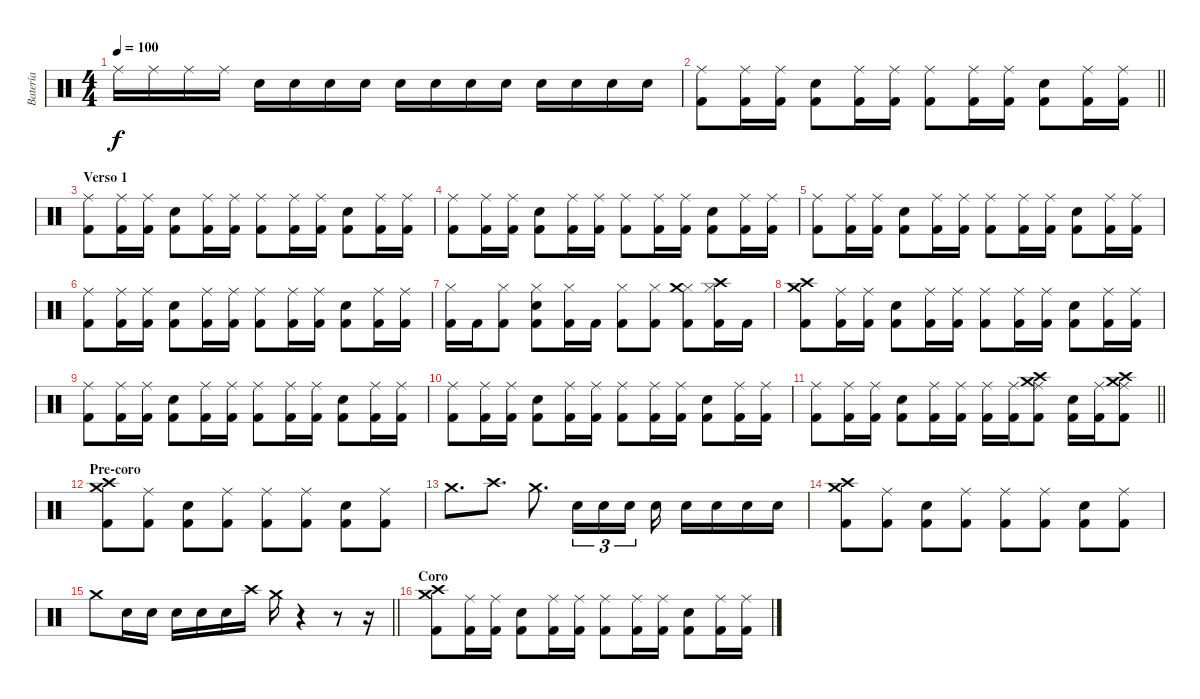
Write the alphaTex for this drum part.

\track ("Batería" "Batería") {instrument percussion}
\staff {score}
\articulation defaults
\ts (4 4)
\tempo 100
\clef neutral
\ks c "Ride (middle)".16{dy f} "Ride (middle)".16 "Ride (middle)".16 "Ride (middle)".16 "Electric Snare (hit)".16 "Electric Snare (hit)".16 "Electric Snare (hit)".16 "Electric Snare (hit)".16 "Snare (hit) 2".16 "Snare (hit) 2".16 "Snare (hit) 2".16 "Snare (hit) 2".16 "Electric Snare (hit)".16 "Electric Snare (hit)".16 "Electric Snare (hit)".16 "Electric Snare (hit)".16
|
\barLineRight lightlight
("Ride (middle)" "Kick (hit) 2").8 ("Ride (middle)" "Kick (hit) 2").16 ("Ride (middle)" "Kick (hit) 2").16 ("Electric Snare (hit)" "Kick (hit) 2").8 ("Ride (middle)" "Kick (hit) 2").16 ("Ride (middle)" "Kick (hit) 2").16 ("Ride (middle)" "Kick (hit) 2").8 ("Ride (middle)" "Kick (hit) 2").16 ("Ride (middle)" "Kick (hit) 2").16 ("Electric Snare (hit)" "Kick (hit) 2").8 ("Ride (middle)" "Kick (hit) 2").16 ("Ride (middle)" "Kick (hit) 2").16 |
\section ("" "Verso 1")
("Ride (middle)" "Kick (hit) 2").8 ("Ride (middle)" "Kick (hit) 2").16 ("Ride (middle)" "Kick (hit) 2").16 ("Electric Snare (hit)" "Kick (hit) 2").8 ("Ride (middle)" "Kick (hit) 2").16 ("Ride (middle)" "Kick (hit) 2").16 ("Ride (middle)" "Kick (hit) 2").8 ("Ride (middle)" "Kick (hit) 2").16 ("Ride (middle)" "Kick (hit) 2").16 ("Electric Snare (hit)" "Kick (hit) 2").8 ("Ride (middle)" "Kick (hit) 2").16 ("Ride (middle)" "Kick (hit) 2").16 |
("Ride (middle)" "Kick (hit) 2").8 ("Ride (middle)" "Kick (hit) 2").16 ("Ride (middle)" "Kick (hit) 2").16 ("Electric Snare (hit)" "Kick (hit) 2").8 ("Ride (middle)" "Kick (hit) 2").16 ("Ride (middle)" "Kick (hit) 2").16 ("Ride (middle)" "Kick (hit) 2").8 ("Ride (middle)" "Kick (hit) 2").16 ("Ride (middle)" "Kick (hit) 2").16 ("Electric Snare (hit)" "Kick (hit) 2").8 ("Ride (middle)" "Kick (hit) 2").16 ("Ride (middle)" "Kick (hit) 2").16 |
("Ride (middle)" "Kick (hit) 2").8 ("Ride (middle)" "Kick (hit) 2").16 ("Ride (middle)" "Kick (hit) 2").16 ("Electric Snare (hit)" "Kick (hit) 2").8 ("Ride (middle)" "Kick (hit) 2").16 ("Ride (middle)" "Kick (hit) 2").16 ("Ride (middle)" "Kick (hit) 2").8 ("Ride (middle)" "Kick (hit) 2").16 ("Ride (middle)" "Kick (hit) 2").16 ("Electric Snare (hit)" "Kick (hit) 2").8 ("Ride (middle)" "Kick (hit) 2").16 ("Ride (middle)" "Kick (hit) 2").16 |
("Ride (middle)" "Kick (hit) 2").8 ("Ride (middle)" "Kick (hit) 2").16 ("Ride (middle)" "Kick (hit) 2").16 ("Electric Snare (hit)" "Kick (hit) 2").8 ("Ride (middle)" "Kick (hit) 2").16 ("Ride (middle)" "Kick (hit) 2").16 ("Ride (middle)" "Kick (hit) 2").8 ("Ride (middle)" "Kick (hit) 2").16 ("Ride (middle)" "Kick (hit) 2").16 ("Electric Snare (hit)" "Kick (hit) 2").8 ("Ride (middle)" "Kick (hit) 2").16 ("Ride (middle)" "Kick (hit) 2").16 |
("Hi-Hat (closed)" "Kick (hit) 2").16 "Kick (hit) 2".16 ("Hi-Hat (closed)" "Kick (hit) 2").8 ("Hi-Hat (closed)" "Electric Snare (hit)" "Kick (hit) 2").8 ("Hi-Hat (closed)" "Kick (hit) 2").16 "Kick (hit) 2".16 ("Hi-Hat (closed)" "Kick (hit) 2").8 ("Hi-Hat (closed)" "Kick (hit) 2").8 ("Hi-Hat (closed)" "Crash medium (hit)" "Kick (hit) 2").8 ("Hi-Hat (closed)" "Crash high (hit)" "Kick (hit) 2").16 "Kick (hit) 2".16 |
("Crash medium (hit)" "Crash high (hit)" "Kick (hit) 2").8 ("Ride (middle)" "Kick (hit) 2").16 ("Ride (middle)" "Kick (hit) 2").16 ("Electric Snare (hit)" "Kick (hit) 2").8 ("Ride (middle)" "Kick (hit) 2").16 ("Ride (middle)" "Kick (hit) 2").16 ("Ride (middle)" "Kick (hit) 2").8 ("Ride (middle)" "Kick (hit) 2").16 ("Ride (middle)" "Kick (hit) 2").16 ("Electric Snare (hit)" "Kick (hit) 2").8 ("Ride (middle)" "Kick (hit) 2").16 ("Ride (middle)" "Kick (hit) 2").16 |
("Ride (middle)" "Kick (hit) 2").8 ("Ride (middle)" "Kick (hit) 2").16 ("Ride (middle)" "Kick (hit) 2").16 ("Electric Snare (hit)" "Kick (hit) 2").8 ("Ride (middle)" "Kick (hit) 2").16 ("Ride (middle)" "Kick (hit) 2").16 ("Ride (middle)" "Kick (hit) 2").8 ("Ride (middle)" "Kick (hit) 2").16 ("Ride (middle)" "Kick (hit) 2").16 ("Electric Snare (hit)" "Kick (hit) 2").8 ("Ride (middle)" "Kick (hit) 2").16 ("Ride (middle)" "Kick (hit) 2").16 |
("Ride (middle)" "Kick (hit) 2").8 ("Ride (middle)" "Kick (hit) 2").16 ("Ride (middle)" "Kick (hit) 2").16 ("Electric Snare (hit)" "Kick (hit) 2").8 ("Ride (middle)" "Kick (hit) 2").16 ("Ride (middle)" "Kick (hit) 2").16 ("Ride (middle)" "Kick (hit) 2").8 ("Ride (middle)" "Kick (hit) 2").16 ("Ride (middle)" "Kick (hit) 2").16 ("Electric Snare (hit)" "Kick (hit) 2").8 ("Ride (middle)" "Kick (hit) 2").16 ("Ride (middle)" "Kick (hit) 2").16 |
\barLineRight lightlight
("Ride (middle)" "Kick (hit) 2").8 ("Ride (middle)" "Kick (hit) 2").16 ("Ride (middle)" "Kick (hit) 2").16 ("Electric Snare (hit)" "Kick (hit) 2").8 ("Ride (middle)" "Kick (hit) 2").16 ("Ride (middle)" "Kick (hit) 2").16 ("Ride (middle)" "Kick (hit) 2").16 ("Ride (middle)" "Kick (hit) 2").16 ("Crash medium (hit)" "Crash high (hit)" "Ride (middle)" "Kick (hit) 2").8 ("Electric Snare (hit)" "Kick (hit) 2").16 ("Ride (middle)" "Kick (hit) 2").16 ("Crash medium (hit)" "Crash high (hit)" "Ride (middle)" "Kick (hit) 2").8 |
\section ("" "Pre-coro")
("Crash medium (hit)" "Crash high (hit)" "Kick (hit) 2").8 ("Ride (middle)" "Kick (hit) 2").8 ("Electric Snare (hit)" "Kick (hit) 2").8 ("Ride (middle)" "Kick (hit) 2").8 ("Ride (middle)" "Kick (hit) 2").8 ("Ride (middle)" "Kick (hit) 2").8 ("Electric Snare (hit)" "Kick (hit) 2").8 ("Ride (middle)" "Kick (hit) 2").8 |
"Crash medium (hit)".8{d} "Crash high (hit)".8{d} "Crash medium (hit)".8{d} "Electric Snare (hit)".16{tu (3 2)} "Electric Snare (hit)".16{tu (3 2)} "Electric Snare (hit)".16{tu (3 2) beam splitsecondary} "Electric Snare (hit)".16 "Electric Snare (hit)".16 "Electric Snare (hit)".16 "Electric Snare (hit)".16 "Electric Snare (hit)".16 |
("Crash medium (hit)" "Crash high (hit)" "Kick (hit) 2").8 ("Ride (middle)" "Kick (hit) 2").8 ("Electric Snare (hit)" "Kick (hit) 2").8 ("Ride (middle)" "Kick (hit) 2").8 ("Ride (middle)" "Kick (hit) 2").8 ("Ride (middle)" "Kick (hit) 2").8 ("Electric Snare (hit)" "Kick (hit) 2").8 ("Ride (middle)" "Kick (hit) 2").8 |
\barLineRight lightlight "Crash medium (hit)".8 "Electric Snare (hit)".16 "Electric Snare (hit)".16 "Electric Snare (hit)".16 "Electric Snare (hit)".16 "Electric Snare (hit)".16 "Crash high (hit)".16 "Crash medium (hit)".16
r.4 r.8 r.16 |
\section ("" "Coro")
("Crash medium (hit)" "Crash high (hit)" "Kick (hit) 2").8 ("Ride (middle)" "Kick (hit) 2").16 ("Ride (middle)" "Kick (hit) 2").16 ("Electric Snare (hit)" "Kick (hit) 2").8 ("Ride (middle)" "Kick (hit) 2").16 ("Ride (middle)" "Kick (hit) 2").16 ("Ride (middle)" "Kick (hit) 2").8 ("Ride (middle)" "Kick (hit) 2").16 ("Ride (middle)" "Kick (hit) 2").16 ("Electric Snare (hit)" "Kick (hit) 2").8 ("Ride (middle)" "Kick (hit) 2").16 ("Ride (middle)" "Kick (hit) 2").16
